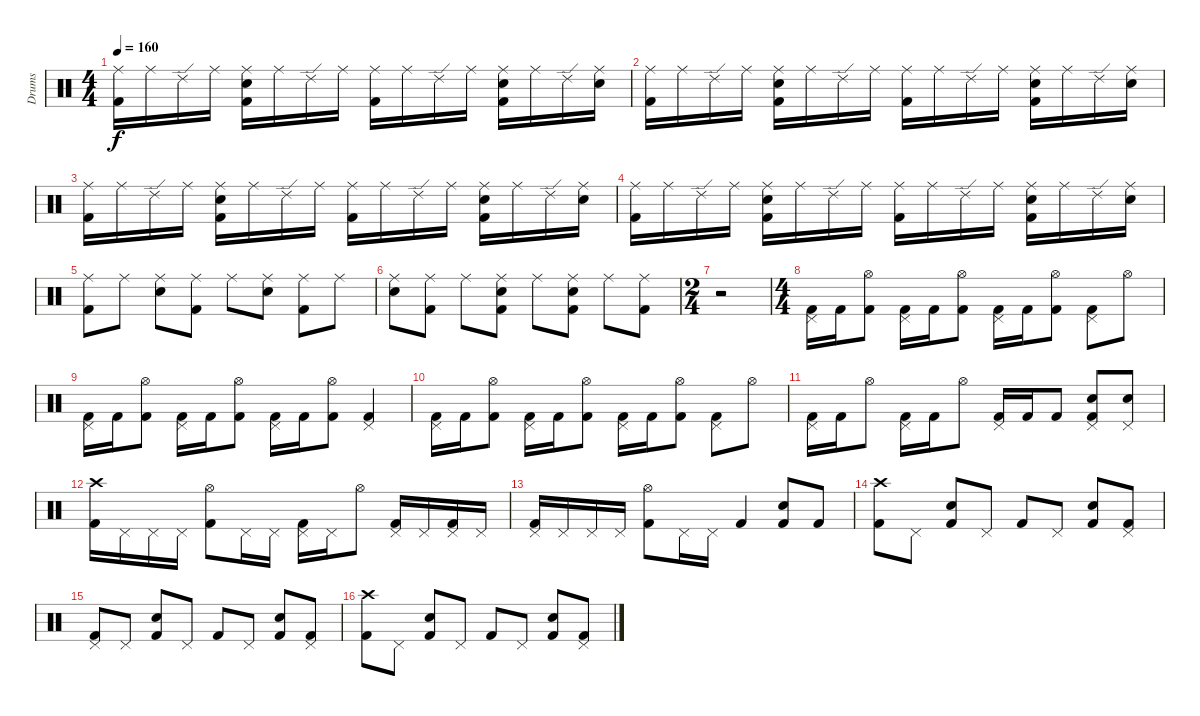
\track ("Drums" "Drums") {instrument percussion}
\staff {score}
\articulation defaults
\ts (4 4)
\tempo 160
\clef neutral
\ks c
("Ride (middle)" "Kick (hit) 2").16{dy f} "Ride (middle)".16 "Ride (edge) 2".16 "Ride (middle)".16 ("Ride (middle)" "Electric Snare (hit)" "Kick (hit) 2").16 "Ride (middle)".16 "Ride (edge) 2".16 "Ride (middle)".16 ("Ride (middle)" "Kick (hit) 2").16 "Ride (middle)".16 "Ride (edge) 2".16 "Ride (middle)".16 ("Ride (middle)" "Electric Snare (hit)" "Kick (hit) 2").16 "Ride (middle)".16 "Ride (edge) 2".16 ("Ride (middle)" "Electric Snare (hit)").16 |
("Ride (middle)" "Kick (hit) 2").16 "Ride (middle)".16 "Ride (edge) 2".16 "Ride (middle)".16 ("Ride (middle)" "Electric Snare (hit)" "Kick (hit) 2").16 "Ride (middle)".16 "Ride (edge) 2".16 "Ride (middle)".16 ("Ride (middle)" "Kick (hit) 2").16 "Ride (middle)".16 "Ride (edge) 2".16 "Ride (middle)".16 ("Ride (middle)" "Electric Snare (hit)" "Kick (hit) 2").16 "Ride (middle)".16 "Ride (edge) 2".16 ("Ride (middle)" "Electric Snare (hit)").16 |
("Ride (middle)" "Kick (hit) 2").16 "Ride (middle)".16 "Ride (edge) 2".16 "Ride (middle)".16 ("Ride (middle)" "Electric Snare (hit)" "Kick (hit) 2").16 "Ride (middle)".16 "Ride (edge) 2".16 "Ride (middle)".16 ("Ride (middle)" "Kick (hit) 2").16 "Ride (middle)".16 "Ride (edge) 2".16 "Ride (middle)".16 ("Ride (middle)" "Electric Snare (hit)" "Kick (hit) 2").16 "Ride (middle)".16 "Ride (edge) 2".16 ("Ride (middle)" "Electric Snare (hit)").16 |
("Ride (middle)" "Kick (hit) 2").16 "Ride (middle)".16 "Ride (edge) 2".16 "Ride (middle)".16 ("Ride (middle)" "Electric Snare (hit)" "Kick (hit) 2").16 "Ride (middle)".16 "Ride (edge) 2".16 "Ride (middle)".16 ("Ride (middle)" "Kick (hit) 2").16 "Ride (middle)".16 "Ride (edge) 2".16 "Ride (middle)".16 ("Ride (middle)" "Electric Snare (hit)" "Kick (hit) 2").16 "Ride (middle)".16 "Ride (edge) 2".16 ("Ride (middle)" "Electric Snare (hit)").16 |
("Ride (middle)" "Kick (hit) 2").8 "Ride (middle)".8 ("Ride (middle)" "Electric Snare (hit)").8 ("Ride (middle)" "Kick (hit) 2").8 "Ride (middle)".8 ("Ride (middle)" "Electric Snare (hit)").8 ("Ride (middle)" "Kick (hit) 2").8 "Ride (middle)".8 |
("Ride (middle)" "Electric Snare (hit)").8 ("Ride (middle)" "Kick (hit) 2").8 "Ride (middle)".8 ("Ride (middle)" "Electric Snare (hit)" "Kick (hit) 2").8 "Ride (middle)".8 ("Ride (middle)" "Electric Snare (hit)" "Kick (hit) 2").8 "Ride (middle)".8 ("Ride (middle)" "Kick (hit) 2").8 |
\ts (2 4)
r.2 |
\ts (4 4)
("Pedal Hi-Hat (hit)" "Kick (hit) 2").16 "Kick (hit) 2".16 ("Hi-Hat (open)" "Kick (hit) 2").8 ("Pedal Hi-Hat (hit)" "Kick (hit) 2").16 "Kick (hit) 2".16 ("Hi-Hat (open)" "Kick (hit) 2").8 ("Pedal Hi-Hat (hit)" "Kick (hit) 2").16 "Kick (hit) 2".16 ("Hi-Hat (open)" "Kick (hit) 2").8 ("Pedal Hi-Hat (hit)" "Kick (hit) 2").8 "Hi-Hat (open)".8 |
("Pedal Hi-Hat (hit)" "Kick (hit) 2").16 "Kick (hit) 2".16 ("Hi-Hat (open)" "Kick (hit) 2").8 ("Pedal Hi-Hat (hit)" "Kick (hit) 2").16 "Kick (hit) 2".16 ("Hi-Hat (open)" "Kick (hit) 2").8 ("Pedal Hi-Hat (hit)" "Kick (hit) 2").16 "Kick (hit) 2".16 ("Hi-Hat (open)" "Kick (hit) 2").8 ("Pedal Hi-Hat (hit)" "Kick (hit) 2").4 |
("Pedal Hi-Hat (hit)" "Kick (hit) 2").16 "Kick (hit) 2".16 ("Hi-Hat (open)" "Kick (hit) 2").8 ("Pedal Hi-Hat (hit)" "Kick (hit) 2").16 "Kick (hit) 2".16 ("Hi-Hat (open)" "Kick (hit) 2").8 ("Pedal Hi-Hat (hit)" "Kick (hit) 2").16 "Kick (hit) 2".16 ("Hi-Hat (open)" "Kick (hit) 2").8 ("Pedal Hi-Hat (hit)" "Kick (hit) 2").8 "Hi-Hat (open)".8 |
("Pedal Hi-Hat (hit)" "Kick (hit) 2").16 "Kick (hit) 2".16 "Hi-Hat (open)".8 ("Pedal Hi-Hat (hit)" "Kick (hit) 2").16 "Kick (hit) 2".16 "Hi-Hat (open)".8 ("Pedal Hi-Hat (hit)" "Kick (hit) 2").16 "Kick (hit) 2".16 "Kick (hit) 2".8 ("Pedal Hi-Hat (hit)" "Electric Snare (hit)" "Kick (hit) 2").8 ("Pedal Hi-Hat (hit)" "Electric Snare (hit)").8 |
("Crash high (hit)" "Kick (hit) 2").16 "Pedal Hi-Hat (hit)".16 "Pedal Hi-Hat (hit)".16 "Pedal Hi-Hat (hit)".16 ("Hi-Hat (open)" "Kick (hit) 2").8 "Pedal Hi-Hat (hit)".16 "Pedal Hi-Hat (hit)".16 ("Pedal Hi-Hat (hit)" "Kick (hit) 2").16 "Pedal Hi-Hat (hit)".16 "Hi-Hat (open)".8 ("Pedal Hi-Hat (hit)" "Kick (hit) 2").16 "Pedal Hi-Hat (hit)".16 ("Pedal Hi-Hat (hit)" "Kick (hit) 2").16 "Pedal Hi-Hat (hit)".16 |
("Pedal Hi-Hat (hit)" "Kick (hit) 2").16 "Pedal Hi-Hat (hit)".16 "Pedal Hi-Hat (hit)".16 "Pedal Hi-Hat (hit)".16 ("Hi-Hat (open)" "Kick (hit) 2").8 "Pedal Hi-Hat (hit)".16 "Pedal Hi-Hat (hit)".16 "Kick (hit) 2".4 ("Electric Snare (hit)" "Kick (hit) 2").8 "Kick (hit) 2".8 |
("Crash high (hit)" "Kick (hit) 2").8 "Pedal Hi-Hat (hit)".8 ("Electric Snare (hit)" "Kick (hit) 2").8 "Pedal Hi-Hat (hit)".8 "Kick (hit) 2".8 "Pedal Hi-Hat (hit)".8 ("Electric Snare (hit)" "Kick (hit) 2").8 ("Pedal Hi-Hat (hit)" "Kick (hit) 2").8 |
("Pedal Hi-Hat (hit)" "Kick (hit) 2").8 "Pedal Hi-Hat (hit)".8 ("Electric Snare (hit)" "Kick (hit) 2").8 "Pedal Hi-Hat (hit)".8 "Kick (hit) 2".8 "Pedal Hi-Hat (hit)".8 ("Electric Snare (hit)" "Kick (hit) 2").8 ("Pedal Hi-Hat (hit)" "Kick (hit) 2").8 |
("Crash high (hit)" "Kick (hit) 2").8 "Pedal Hi-Hat (hit)".8 ("Electric Snare (hit)" "Kick (hit) 2").8 "Pedal Hi-Hat (hit)".8 "Kick (hit) 2".8 "Pedal Hi-Hat (hit)".8 ("Electric Snare (hit)" "Kick (hit) 2").8 ("Pedal Hi-Hat (hit)" "Kick (hit) 2").8
